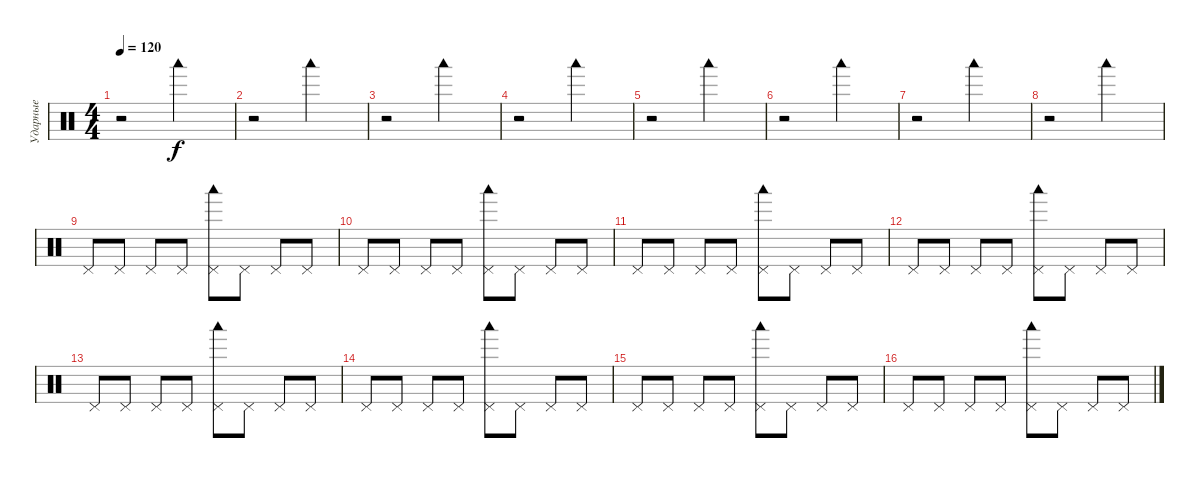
\track ("Ударные" "Ударные") {instrument percussion}
\staff {score}
\articulation defaults
\ts (4 4)
\tempo 120
\clef neutral
\ks c
r.2{dy f} "Woodblock low (hit)".2 |
r.2 "Woodblock low (hit)".2 |
r.2 "Woodblock low (hit)".2 |
r.2 "Woodblock low (hit)".2 |
r.2 "Woodblock low (hit)".2 |
r.2 "Woodblock low (hit)".2 |
r.2 "Woodblock low (hit)".2 |
r.2 "Woodblock low (hit)".2 |
"Pedal Hi-Hat (hit)".8 "Pedal Hi-Hat (hit)".8 "Pedal Hi-Hat (hit)".8 "Pedal Hi-Hat (hit)".8 ("Woodblock low (hit)" "Pedal Hi-Hat (hit)").8 "Pedal Hi-Hat (hit)".8 "Pedal Hi-Hat (hit)".8 "Pedal Hi-Hat (hit)".8 |
"Pedal Hi-Hat (hit)".8 "Pedal Hi-Hat (hit)".8 "Pedal Hi-Hat (hit)".8 "Pedal Hi-Hat (hit)".8 ("Woodblock low (hit)" "Pedal Hi-Hat (hit)").8 "Pedal Hi-Hat (hit)".8 "Pedal Hi-Hat (hit)".8 "Pedal Hi-Hat (hit)".8 |
"Pedal Hi-Hat (hit)".8 "Pedal Hi-Hat (hit)".8 "Pedal Hi-Hat (hit)".8 "Pedal Hi-Hat (hit)".8 ("Woodblock low (hit)" "Pedal Hi-Hat (hit)").8 "Pedal Hi-Hat (hit)".8 "Pedal Hi-Hat (hit)".8 "Pedal Hi-Hat (hit)".8 |
"Pedal Hi-Hat (hit)".8 "Pedal Hi-Hat (hit)".8 "Pedal Hi-Hat (hit)".8 "Pedal Hi-Hat (hit)".8 ("Woodblock low (hit)" "Pedal Hi-Hat (hit)").8 "Pedal Hi-Hat (hit)".8 "Pedal Hi-Hat (hit)".8 "Pedal Hi-Hat (hit)".8 |
"Pedal Hi-Hat (hit)".8 "Pedal Hi-Hat (hit)".8 "Pedal Hi-Hat (hit)".8 "Pedal Hi-Hat (hit)".8 ("Woodblock low (hit)" "Pedal Hi-Hat (hit)").8 "Pedal Hi-Hat (hit)".8 "Pedal Hi-Hat (hit)".8 "Pedal Hi-Hat (hit)".8 |
"Pedal Hi-Hat (hit)".8 "Pedal Hi-Hat (hit)".8 "Pedal Hi-Hat (hit)".8 "Pedal Hi-Hat (hit)".8 ("Woodblock low (hit)" "Pedal Hi-Hat (hit)").8 "Pedal Hi-Hat (hit)".8 "Pedal Hi-Hat (hit)".8 "Pedal Hi-Hat (hit)".8 |
"Pedal Hi-Hat (hit)".8 "Pedal Hi-Hat (hit)".8 "Pedal Hi-Hat (hit)".8 "Pedal Hi-Hat (hit)".8 ("Woodblock low (hit)" "Pedal Hi-Hat (hit)").8 "Pedal Hi-Hat (hit)".8 "Pedal Hi-Hat (hit)".8 "Pedal Hi-Hat (hit)".8 |
"Pedal Hi-Hat (hit)".8 "Pedal Hi-Hat (hit)".8 "Pedal Hi-Hat (hit)".8 "Pedal Hi-Hat (hit)".8 ("Woodblock low (hit)" "Pedal Hi-Hat (hit)").8 "Pedal Hi-Hat (hit)".8 "Pedal Hi-Hat (hit)".8 "Pedal Hi-Hat (hit)".8
